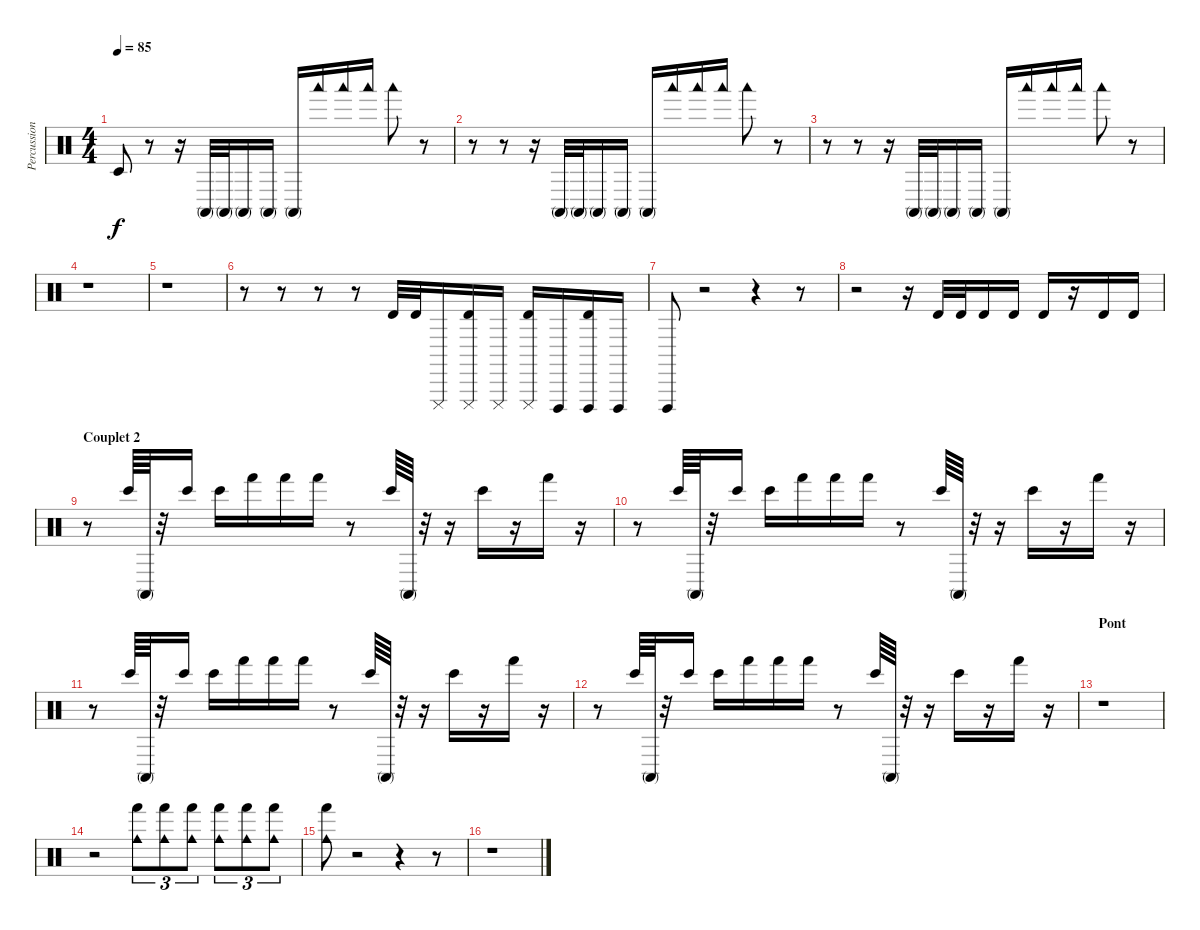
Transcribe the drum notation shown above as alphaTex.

\track ("Percussions" "Percussion") {instrument percussion}
\staff {score}
\articulation defaults
\ts (4 4)
\tempo 85
\clef neutral
\ks c "Timbale low (hit)".8{dy f}
r.8 r.16 "Conga high (mute)".32 "Conga high (mute)".32 "Conga high (mute)".16 "Conga high (mute)".16 "Conga high (mute)".16 "Woodblock low (hit)".16 "Woodblock low (hit)".16 "Woodblock low (hit)".16 "Woodblock low (hit)".8 r.8 |
r.8 r.8 r.16 "Conga high (mute)".32 "Conga high (mute)".32 "Conga high (mute)".16 "Conga high (mute)".16 "Conga high (mute)".16 "Woodblock low (hit)".16 "Woodblock low (hit)".16 "Woodblock low (hit)".16 "Woodblock low (hit)".8 r.8 |
r.8 r.8 r.16 "Conga high (mute)".32 "Conga high (mute)".32 "Conga high (mute)".16 "Conga high (mute)".16 "Conga high (mute)".16 "Woodblock low (hit)".16 "Woodblock low (hit)".16 "Woodblock low (hit)".16 "Woodblock low (hit)".8 r.8 |
r.1 |
r.1 |
r.8 r.8 r.8 r.8 "Timbale high (hit)".32 "Timbale high (hit)".32 "Cuica (mute)".16 ("Cuica (mute)" "Timbale high (hit)").16 "Cuica (mute)".16 ("Cuica (mute)" "Timbale high (hit)").16 "Cuica (open)".16 ("Cuica (open)" "Timbale high (hit)").16 "Cuica (open)".16 |
"Cuica (open)".8 r.2 r.4 r.8 |
r.2 r.16 "Timbale high (hit)".32 "Timbale high (hit)".32 "Timbale high (hit)".16 "Timbale high (hit)".16 "Timbale high (hit)".16 r.16 "Timbale high (hit)".16 "Timbale high (hit)".16 |
\section ("" "Couplet 2")
r.8 "Bongo High (hit)".64 "Conga high (mute)".64 r.32 "Bongo High (hit)".16 "Bongo High (hit)".16 "Hand (hit)".16 "Hand (hit)".16 "Hand (hit)".16 r.8 "Bongo High (hit)".64 "Conga high (mute)".64 r.32 r.16 "Bongo High (hit)".16 r.16 "Hand (hit)".16 r.16 |
r.8 "Bongo High (hit)".64 "Conga high (mute)".64 r.32 "Bongo High (hit)".16 "Bongo High (hit)".16 "Hand (hit)".16 "Hand (hit)".16 "Hand (hit)".16 r.8 "Bongo High (hit)".64 "Conga high (mute)".64 r.32 r.16 "Bongo High (hit)".16 r.16 "Hand (hit)".16 r.16 |
r.8 "Bongo High (hit)".64 "Conga high (mute)".64 r.32 "Bongo High (hit)".16 "Bongo High (hit)".16 "Hand (hit)".16 "Hand (hit)".16 "Hand (hit)".16 r.8 "Bongo High (hit)".64 "Conga high (mute)".64 r.32 r.16 "Bongo High (hit)".16 r.16 "Hand (hit)".16 r.16 |
r.8 "Bongo High (hit)".64 "Conga high (mute)".64 r.32 "Bongo High (hit)".16 "Bongo High (hit)".16 "Hand (hit)".16 "Hand (hit)".16 "Hand (hit)".16 r.8 "Bongo High (hit)".64 "Conga high (mute)".64 r.32 r.16 "Bongo High (hit)".16 r.16 "Hand (hit)".16 r.16 |
\section ("" "Pont")
r.1 |
r.2 ("Cowbell medium (hit)" "Hand (hit)").8{tu (3 2)} ("Cowbell medium (hit)" "Hand (hit)").8{tu (3 2)} ("Cowbell medium (hit)" "Hand (hit)").8{tu (3 2)} ("Cowbell medium (hit)" "Hand (hit)").8{tu (3 2)} ("Cowbell medium (hit)" "Hand (hit)").8{tu (3 2)} ("Cowbell medium (hit)" "Hand (hit)").8{tu (3 2)} |
("Cowbell medium (hit)" "Hand (hit)").8 r.2 r.4 r.8 |
r.1
